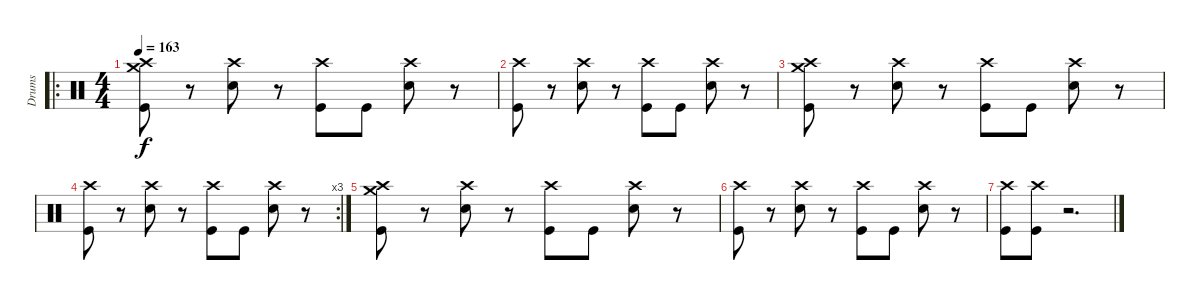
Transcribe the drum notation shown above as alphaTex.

\track ("Drums" "Drums") {instrument percussion}
\staff {score}
\articulation defaults
\ro
\ts (4 4)
\tempo 163
\clef neutral
\ks c
("Crash high (hit)" "Crash medium (hit)" "Kick (hit)").8{dy f} r.8 ("Crash high (hit)" "Electric Snare (hit)").8 r.8 ("Crash high (hit)" "Kick (hit)").8 "Kick (hit)".8 ("Crash high (hit)" "Electric Snare (hit)").8 r.8 |
("Crash high (hit)" "Kick (hit)").8 r.8 ("Crash high (hit)" "Electric Snare (hit)").8 r.8 ("Crash high (hit)" "Kick (hit)").8 "Kick (hit)".8 ("Crash high (hit)" "Electric Snare (hit)").8 r.8 |
("Crash high (hit)" "Crash medium (hit)" "Kick (hit)").8 r.8 ("Crash high (hit)" "Electric Snare (hit)").8 r.8 ("Crash high (hit)" "Kick (hit)").8 "Kick (hit)".8 ("Crash high (hit)" "Electric Snare (hit)").8 r.8 |
\rc 3
("Crash high (hit)" "Kick (hit)").8 r.8 ("Crash high (hit)" "Electric Snare (hit)").8 r.8 ("Crash high (hit)" "Kick (hit)").8 "Kick (hit)".8 ("Crash high (hit)" "Electric Snare (hit)").8 r.8 |
("Crash high (hit)" "Crash medium (hit)" "Kick (hit)").8 r.8 ("Crash high (hit)" "Electric Snare (hit)").8 r.8 ("Crash high (hit)" "Kick (hit)").8 "Kick (hit)".8 ("Crash high (hit)" "Electric Snare (hit)").8 r.8 |
("Crash high (hit)" "Kick (hit)").8 r.8 ("Crash high (hit)" "Electric Snare (hit)").8 r.8 ("Crash high (hit)" "Kick (hit)").8 "Kick (hit)".8 ("Crash high (hit)" "Electric Snare (hit)").8 r.8 |
("Crash high (hit)" "Kick (hit)").8 ("Kick (hit)" "Crash high (hit)").8 r.2{d}
